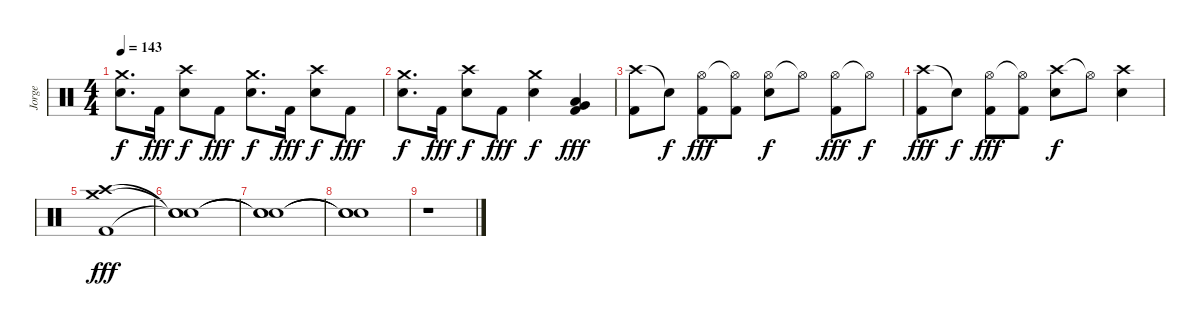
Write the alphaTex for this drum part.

\track ("Jorge" "Jorge") {instrument percussion}
\staff {score}
\articulation defaults
\ts (4 4)
\tempo 143
\clef neutral
\ks c
("Crash medium (hit)" "Electric Snare (hit)").8{d dy f} "Kick (hit) 2".16{dy fff} ("Crash high (hit)" "Electric Snare (hit)").8{dy f} "Kick (hit) 2".8{dy fff} ("Crash medium (hit)" "Electric Snare (hit)").8{d dy f} "Kick (hit) 2".16{dy fff} ("Crash high (hit)" "Electric Snare (hit)").8{dy f} "Kick (hit) 2".8{dy fff} |
("Crash medium (hit)" "Electric Snare (hit)").8{d dy f} "Kick (hit) 2".16{dy fff} ("Crash high (hit)" "Electric Snare (hit)").8{dy f} "Kick (hit) 2".8{dy fff} ("Crash medium (hit)" "Electric Snare (hit)").4{dy f} ("Very Low Tom (hit)" "Low Tom (hit)" "Kick (hit) 2").4{bd 240 dy fff} |
("Crash high (hit)" "Kick (hit) 2").8 "Snare (hit)"{t}.8{dy f} ("Hi-Hat (open)" "Kick (hit) 2").8{dy fff} ("Hi-Hat (open)"{t} "Kick (hit) 2").8 ("Hi-Hat (open)" "Electric Snare (hit)").8{dy f} "Hi-Hat (open)"{t}.8 ("Hi-Hat (open)" "Kick (hit) 2").8{dy fff} "Hi-Hat (open)"{t}.8{dy f} |
("Crash high (hit)" "Kick (hit) 2").8{dy fff} "Snare (hit)"{t}.8{dy f} ("Hi-Hat (open)" "Kick (hit) 2").8{dy fff} ("Hi-Hat (open)"{t} "Kick (hit) 2").8 ("Crash high (hit)" "Electric Snare (hit)").8{dy f} "Hi-Hat (open)"{t}.8 ("Crash high (hit)" "Electric Snare (hit)").4 |
("Crash high (hit)" "Crash medium (hit)" "Kick (hit) 2").1{dy fff volume 0} |
("Snare (hit)"{t} "Snare (hit)"{t} "Snare (hit)"{t}).1 |
("Snare (hit)"{t} "Snare (hit)"{t} "Snare (hit)"{t}).1 |
("Snare (hit)"{t} "Snare (hit)"{t} "Snare (hit)"{t}).1 |
r.1
